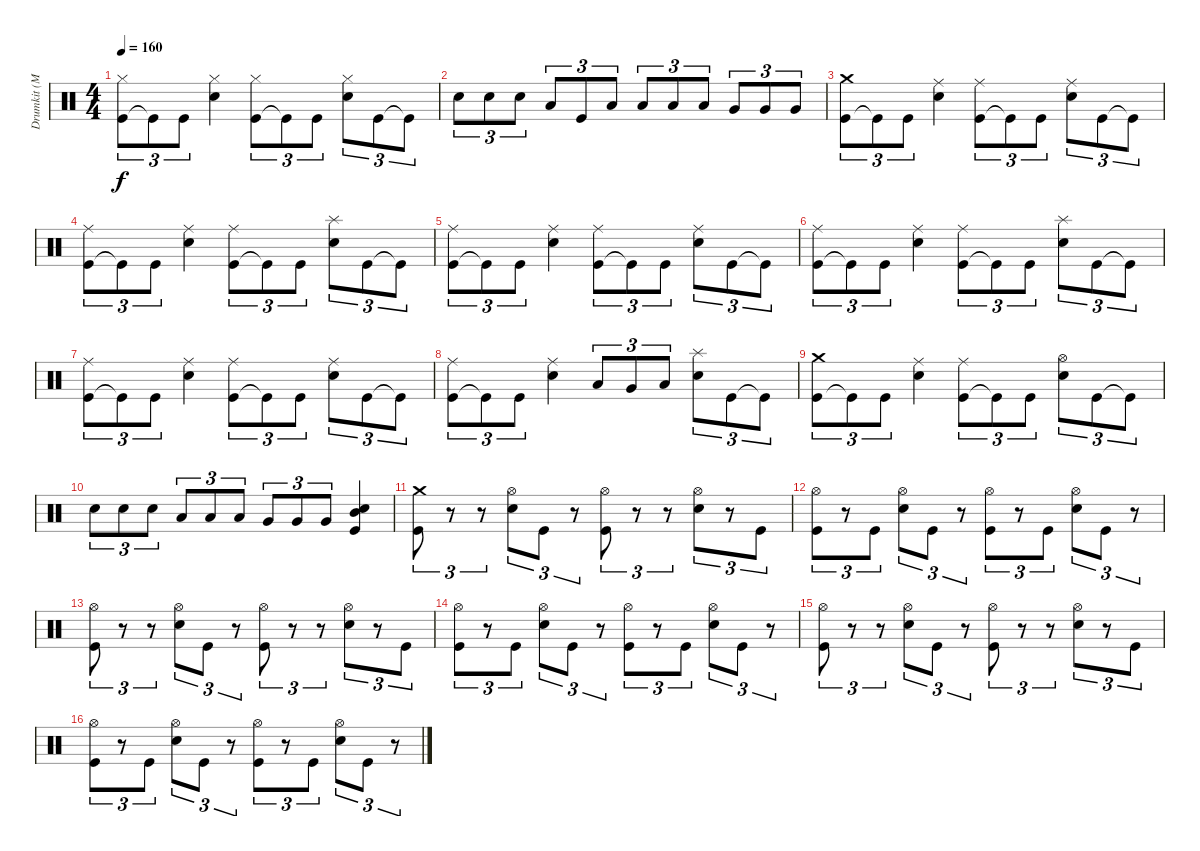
\track ("Drumkit (McBrain)" "Drumkit (M") {instrument percussion}
\staff {score}
\articulation defaults
\ts (4 4)
\tempo 160
\clef neutral
\ks c
("Kick (hit)" "Hi-Hat (closed)").8{tu (3 2) dy f} "Kick (hit)"{t}.8{tu (3 2)} "Kick (hit)".8{tu (3 2)} ("Snare (hit) 2" "Hi-Hat (closed)").4 ("Kick (hit)" "Hi-Hat (closed)").8{tu (3 2)} "Kick (hit)"{t}.8{tu (3 2)} "Kick (hit)".8{tu (3 2)} ("Snare (hit) 2" "Hi-Hat (closed)").8{tu (3 2)} "Kick (hit)".8{tu (3 2)} "Kick (hit)"{t}.8{tu (3 2)} |
"Snare (hit) 2".8{tu (3 2)} "Snare (hit) 2".8{tu (3 2)} "Snare (hit) 2".8{tu (3 2)} "Low Tom (hit)".8{tu (3 2)} "Kick (hit)".8{tu (3 2)} "Low Tom (hit)".8{tu (3 2)} "Low Tom (hit)".8{tu (3 2)} "Low Tom (hit)".8{tu (3 2)} "Low Tom (hit)".8{tu (3 2)} "Very Low Tom (hit)".8{tu (3 2)} "Very Low Tom (hit)".8{tu (3 2)} "Very Low Tom (hit)".8{tu (3 2)} |
("Kick (hit)" "Crash medium (hit)").8{tu (3 2)} "Kick (hit)"{t}.8{tu (3 2)} "Kick (hit)".8{tu (3 2)} ("Snare (hit) 2" "Ride (middle)").4 ("Kick (hit)" "Ride (middle)").8{tu (3 2)} "Kick (hit)"{t}.8{tu (3 2)} "Kick (hit)".8{tu (3 2)} ("Snare (hit) 2" "Ride (middle)").8{tu (3 2)} "Kick (hit)".8{tu (3 2)} "Kick (hit)"{t}.8{tu (3 2)} |
("Kick (hit)" "Ride (middle)").8{tu (3 2)} "Kick (hit)"{t}.8{tu (3 2)} "Kick (hit)".8{tu (3 2)} ("Snare (hit) 2" "Ride (middle)").4 ("Kick (hit)" "Ride (middle)").8{tu (3 2)} "Kick (hit)"{t}.8{tu (3 2)} "Kick (hit)".8{tu (3 2)} ("Snare (hit) 2" "Splash (hit)").8{tu (3 2)} "Kick (hit)".8{tu (3 2)} "Kick (hit)"{t}.8{tu (3 2)} |
("Kick (hit)" "Ride (middle)").8{tu (3 2)} "Kick (hit)"{t}.8{tu (3 2)} "Kick (hit)".8{tu (3 2)} ("Snare (hit) 2" "Ride (middle)").4 ("Kick (hit)" "Ride (middle)").8{tu (3 2)} "Kick (hit)"{t}.8{tu (3 2)} "Kick (hit)".8{tu (3 2)} ("Snare (hit) 2" "Ride (middle)").8{tu (3 2)} "Kick (hit)".8{tu (3 2)} "Kick (hit)"{t}.8{tu (3 2)} |
("Kick (hit)" "Ride (middle)").8{tu (3 2)} "Kick (hit)"{t}.8{tu (3 2)} "Kick (hit)".8{tu (3 2)} ("Snare (hit) 2" "Ride (middle)").4 ("Kick (hit)" "Ride (middle)").8{tu (3 2)} "Kick (hit)"{t}.8{tu (3 2)} "Kick (hit)".8{tu (3 2)} ("Snare (hit) 2" "Splash (hit)").8{tu (3 2)} "Kick (hit)".8{tu (3 2)} "Kick (hit)"{t}.8{tu (3 2)} |
("Kick (hit)" "Ride (middle)").8{tu (3 2)} "Kick (hit)"{t}.8{tu (3 2)} "Kick (hit)".8{tu (3 2)} ("Snare (hit) 2" "Ride (middle)").4 ("Kick (hit)" "Ride (middle)").8{tu (3 2)} "Kick (hit)"{t}.8{tu (3 2)} "Kick (hit)".8{tu (3 2)} ("Snare (hit) 2" "Ride (middle)").8{tu (3 2)} "Kick (hit)".8{tu (3 2)} "Kick (hit)"{t}.8{tu (3 2)} |
("Kick (hit)" "Ride (middle)").8{tu (3 2)} "Kick (hit)"{t}.8{tu (3 2)} "Kick (hit)".8{tu (3 2)} ("Snare (hit) 2" "Ride (middle)").4 "Low Tom (hit)".8{tu (3 2)} "Very Low Tom (hit)".8{tu (3 2)} "Low Floor Tom (hit)".8{tu (3 2)} ("Snare (hit) 2" "Splash (hit)").8{tu (3 2)} "Kick (hit)".8{tu (3 2)} "Kick (hit)"{t}.8{tu (3 2)} |
("Kick (hit)" "Crash medium (hit)").8{tu (3 2)} "Kick (hit)"{t}.8{tu (3 2)} "Kick (hit)".8{tu (3 2)} ("Snare (hit) 2" "Ride (middle)").4 ("Kick (hit)" "Ride (middle)").8{tu (3 2)} "Kick (hit)"{t}.8{tu (3 2)} "Kick (hit)".8{tu (3 2)} ("Snare (hit) 2" "Hi-Hat (open)").8{tu (3 2)} "Kick (hit)".8{tu (3 2)} "Kick (hit)"{t}.8{tu (3 2)} |
"Snare (hit) 2".8{tu (3 2)} "Snare (hit) 2".8{tu (3 2)} "Snare (hit) 2".8{tu (3 2)} "Low Tom (hit)".8{tu (3 2)} "Low Tom (hit)".8{tu (3 2)} "Low Tom (hit)".8{tu (3 2)} "Very Low Tom (hit)".8{tu (3 2)} "Very Low Tom (hit)".8{tu (3 2)} "Very Low Tom (hit)".8{tu (3 2)} ("Snare (hit) 2" "Kick (hit)" "Mid Tom (hit)").4 |
("Crash medium (hit)" "Kick (hit)").8{tu (3 2)} r.8{tu (3 2)} r.8{tu (3 2)} ("Hi-Hat (open)" "Snare (hit) 2").8{tu (3 2)} "Kick (hit)".8{tu (3 2)} r.8{tu (3 2)} ("Hi-Hat (open)" "Kick (hit)").8{tu (3 2)} r.8{tu (3 2)} r.8{tu (3 2)} ("Hi-Hat (open)" "Snare (hit) 2").8{tu (3 2)} r.8{tu (3 2)} "Kick (hit)".8{tu (3 2)} |
("Hi-Hat (open)" "Kick (hit)").8{tu (3 2)} r.8{tu (3 2)} "Kick (hit)".8{tu (3 2)} ("Hi-Hat (open)" "Snare (hit) 2").8{tu (3 2)} "Kick (hit)".8{tu (3 2)} r.8{tu (3 2)} ("Hi-Hat (open)" "Kick (hit)").8{tu (3 2)} r.8{tu (3 2)} "Kick (hit)".8{tu (3 2)} ("Snare (hit) 2" "Hi-Hat (open)").8{tu (3 2)} "Kick (hit)".8{tu (3 2)} r.8{tu (3 2)} |
("Kick (hit)" "Hi-Hat (open)").8{tu (3 2)} r.8{tu (3 2)} r.8{tu (3 2)} ("Hi-Hat (open)" "Snare (hit) 2").8{tu (3 2)} "Kick (hit)".8{tu (3 2)} r.8{tu (3 2)} ("Hi-Hat (open)" "Kick (hit)").8{tu (3 2)} r.8{tu (3 2)} r.8{tu (3 2)} ("Hi-Hat (open)" "Snare (hit) 2").8{tu (3 2)} r.8{tu (3 2)} "Kick (hit)".8{tu (3 2)} |
("Hi-Hat (open)" "Kick (hit)").8{tu (3 2)} r.8{tu (3 2)} "Kick (hit)".8{tu (3 2)} ("Hi-Hat (open)" "Snare (hit) 2").8{tu (3 2)} "Kick (hit)".8{tu (3 2)} r.8{tu (3 2)} ("Hi-Hat (open)" "Kick (hit)").8{tu (3 2)} r.8{tu (3 2)} "Kick (hit)".8{tu (3 2)} ("Snare (hit) 2" "Hi-Hat (open)").8{tu (3 2)} "Kick (hit)".8{tu (3 2)} r.8{tu (3 2)} |
("Kick (hit)" "Hi-Hat (open)").8{tu (3 2)} r.8{tu (3 2)} r.8{tu (3 2)} ("Hi-Hat (open)" "Snare (hit) 2").8{tu (3 2)} "Kick (hit)".8{tu (3 2)} r.8{tu (3 2)} ("Hi-Hat (open)" "Kick (hit)").8{tu (3 2)} r.8{tu (3 2)} r.8{tu (3 2)} ("Hi-Hat (open)" "Snare (hit) 2").8{tu (3 2)} r.8{tu (3 2)} "Kick (hit)".8{tu (3 2)} |
("Hi-Hat (open)" "Kick (hit)").8{tu (3 2)} r.8{tu (3 2)} "Kick (hit)".8{tu (3 2)} ("Hi-Hat (open)" "Snare (hit) 2").8{tu (3 2)} "Kick (hit)".8{tu (3 2)} r.8{tu (3 2)} ("Hi-Hat (open)" "Kick (hit)").8{tu (3 2)} r.8{tu (3 2)} "Kick (hit)".8{tu (3 2)} ("Snare (hit) 2" "Hi-Hat (open)").8{tu (3 2)} "Kick (hit)".8{tu (3 2)} r.8{tu (3 2)}
